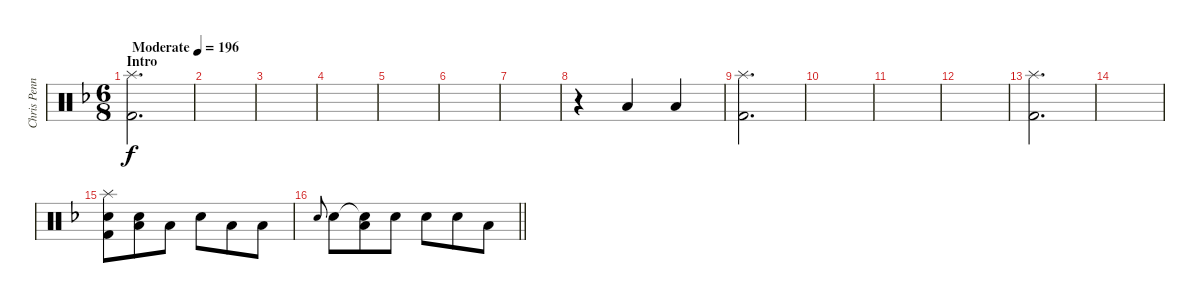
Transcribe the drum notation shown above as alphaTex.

\track ("Chris Pennie/Taylor Hawkins - Drum" "Chris Penn") {instrument percussion}
\staff {score}
\articulation defaults
\ts (6 8)
\section ("" "Intro")
\tempo (196 "Moderate")
\clef neutral
\ks f
("Splash (hit)" "Kick (hit) 2").2{d dy f} |
|
|
|
|
|
|
r.4 "Low Tom (hit)".4 "Low Floor Tom (hit)".4 |
("Splash (hit)" "Kick (hit) 2").2{d} |
|
|
|
("Splash (hit)" "Kick (hit) 2").2{d} |
|
("Splash (hit)" "Electric Snare (hit)" "Kick (hit) 2").8 ("Electric Snare (hit)" "Low Tom (hit)").8 "Low Floor Tom (hit)".8 "Electric Snare (hit)".8 "Low Tom (hit)".8 "Low Floor Tom (hit)".8 |
\barLineRight lightlight "Electric Snare (hit)".8{gr onbeat} "Electric Snare (hit)".8
("Electric Snare (hit)"{t} "Low Floor Tom (hit)").8 "Electric Snare (hit)".8 "Electric Snare (hit)".8 "Electric Snare (hit)".8 "Low Floor Tom (hit)".8
